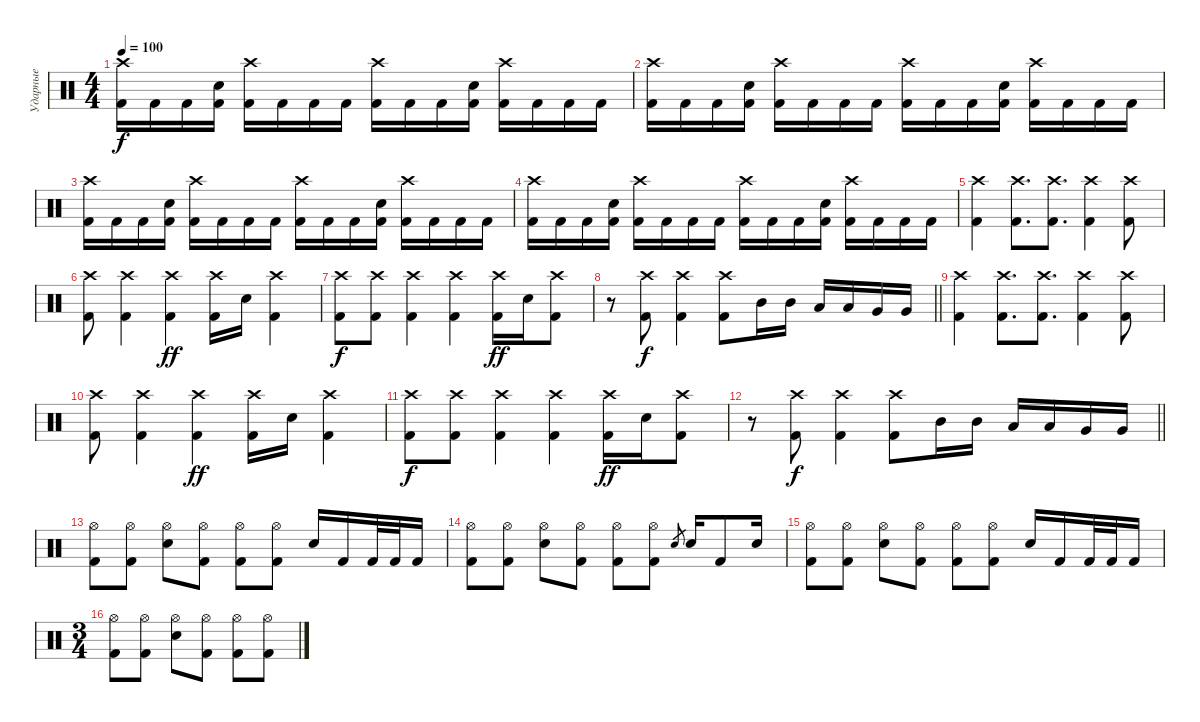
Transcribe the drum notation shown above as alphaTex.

\track ("Ударные" "Ударные") {instrument percussion}
\staff {score}
\articulation defaults
\ts (4 4)
\tempo 100
\clef neutral
\ks c
("Crash high (hit)" "Kick (hit) 2").16{dy f} "Kick (hit) 2".16 "Kick (hit) 2".16 ("Snare (hit) 2" "Kick (hit) 2").16 ("Crash high (hit)" "Kick (hit) 2").16 "Kick (hit) 2".16 "Kick (hit) 2".16 "Kick (hit) 2".16 ("Crash high (hit)" "Kick (hit) 2").16 "Kick (hit) 2".16 "Kick (hit) 2".16 ("Snare (hit) 2" "Kick (hit) 2").16 ("Crash high (hit)" "Kick (hit) 2").16 "Kick (hit) 2".16 "Kick (hit) 2".16 "Kick (hit) 2".16 |
("Crash high (hit)" "Kick (hit) 2").16 "Kick (hit) 2".16 "Kick (hit) 2".16 ("Snare (hit) 2" "Kick (hit) 2").16 ("Crash high (hit)" "Kick (hit) 2").16 "Kick (hit) 2".16 "Kick (hit) 2".16 "Kick (hit) 2".16 ("Crash high (hit)" "Kick (hit) 2").16 "Kick (hit) 2".16 "Kick (hit) 2".16 ("Snare (hit) 2" "Kick (hit) 2").16 ("Crash high (hit)" "Kick (hit) 2").16 "Kick (hit) 2".16 "Kick (hit) 2".16 "Kick (hit) 2".16 |
("Crash high (hit)" "Kick (hit) 2").16 "Kick (hit) 2".16 "Kick (hit) 2".16 ("Snare (hit) 2" "Kick (hit) 2").16 ("Crash high (hit)" "Kick (hit) 2").16 "Kick (hit) 2".16 "Kick (hit) 2".16 "Kick (hit) 2".16 ("Crash high (hit)" "Kick (hit) 2").16 "Kick (hit) 2".16 "Kick (hit) 2".16 ("Snare (hit) 2" "Kick (hit) 2").16 ("Crash high (hit)" "Kick (hit) 2").16 "Kick (hit) 2".16 "Kick (hit) 2".16 "Kick (hit) 2".16 |
("Crash high (hit)" "Kick (hit) 2").16 "Kick (hit) 2".16 "Kick (hit) 2".16 ("Snare (hit) 2" "Kick (hit) 2").16 ("Crash high (hit)" "Kick (hit) 2").16 "Kick (hit) 2".16 "Kick (hit) 2".16 "Kick (hit) 2".16 ("Crash high (hit)" "Kick (hit) 2").16 "Kick (hit) 2".16 "Kick (hit) 2".16 ("Snare (hit) 2" "Kick (hit) 2").16 ("Crash high (hit)" "Kick (hit) 2").16 "Kick (hit) 2".16 "Kick (hit) 2".16 "Kick (hit) 2".16 |
("Crash high (hit)" "Kick (hit) 2").4 ("Crash high (hit)" "Kick (hit) 2").8{d} ("Crash high (hit)" "Kick (hit) 2").8{d} ("Crash high (hit)" "Kick (hit) 2").4 ("Crash high (hit)" "Kick (hit) 2").8 |
("Crash high (hit)" "Kick (hit) 2").8 ("Crash high (hit)" "Kick (hit) 2").4 ("Crash high (hit)" "Kick (hit) 2").4{dy ff} ("Crash high (hit)" "Kick (hit) 2").16 "Snare (hit) 2".16 ("Crash high (hit)" "Kick (hit) 2").4 |
("Crash high (hit)" "Kick (hit) 2").8{dy f} ("Crash high (hit)" "Kick (hit) 2").8 ("Crash high (hit)" "Kick (hit) 2").4 ("Crash high (hit)" "Kick (hit) 2").4 ("Crash high (hit)" "Kick (hit) 2").16{dy ff} "Snare (hit) 2".16 ("Crash high (hit)" "Kick (hit) 2").8 |
\barLineRight lightlight
r.8 ("Crash high (hit)" "Kick (hit) 2").8{dy f} ("Crash high (hit)" "Kick (hit) 2").4 ("Crash high (hit)" "Kick (hit) 2").8 "Mid Tom (hit)".16 "Mid Tom (hit)".16 "Low Tom (hit)".16 "Low Tom (hit)".16 "Very Low Tom (hit)".16 "Very Low Tom (hit)".16 |
("Crash high (hit)" "Kick (hit) 2").4 ("Crash high (hit)" "Kick (hit) 2").8{d} ("Crash high (hit)" "Kick (hit) 2").8{d} ("Crash high (hit)" "Kick (hit) 2").4 ("Crash high (hit)" "Kick (hit) 2").8 |
("Crash high (hit)" "Kick (hit) 2").8 ("Crash high (hit)" "Kick (hit) 2").4 ("Crash high (hit)" "Kick (hit) 2").4{dy ff} ("Crash high (hit)" "Kick (hit) 2").16 "Snare (hit) 2".16 ("Crash high (hit)" "Kick (hit) 2").4 |
("Crash high (hit)" "Kick (hit) 2").8{dy f} ("Crash high (hit)" "Kick (hit) 2").8 ("Crash high (hit)" "Kick (hit) 2").4 ("Crash high (hit)" "Kick (hit) 2").4 ("Crash high (hit)" "Kick (hit) 2").16{dy ff} "Snare (hit) 2".16 ("Crash high (hit)" "Kick (hit) 2").8 |
\barLineRight lightlight
r.8 ("Crash high (hit)" "Kick (hit) 2").8{dy f} ("Crash high (hit)" "Kick (hit) 2").4 ("Crash high (hit)" "Kick (hit) 2").8 "Mid Tom (hit)".16 "Mid Tom (hit)".16 "Low Tom (hit)".16 "Low Tom (hit)".16 "Very Low Tom (hit)".16 "Very Low Tom (hit)".16 |
("Hi-Hat (open)" "Kick (hit) 2").8 ("Hi-Hat (open)" "Kick (hit) 2").8 ("Hi-Hat (open)" "Electric Snare (hit)").8 ("Hi-Hat (open)" "Kick (hit) 2").8 ("Hi-Hat (open)" "Kick (hit) 2").8 ("Hi-Hat (open)" "Kick (hit) 2").8 "Electric Snare (hit)".16 "Kick (hit) 2".16 "Kick (hit) 2".32 "Kick (hit) 2".32 "Kick (hit) 2".16 |
("Hi-Hat (open)" "Kick (hit) 2").8 ("Hi-Hat (open)" "Kick (hit) 2").8 ("Hi-Hat (open)" "Electric Snare (hit)").8 ("Hi-Hat (open)" "Kick (hit) 2").8 ("Hi-Hat (open)" "Kick (hit) 2").8 ("Hi-Hat (open)" "Kick (hit) 2").8 "Electric Snare (hit)".8{gr} "Electric Snare (hit)".16 "Kick (hit) 2".8 "Electric Snare (hit)".16 |
("Hi-Hat (open)" "Kick (hit) 2").8 ("Hi-Hat (open)" "Kick (hit) 2").8 ("Hi-Hat (open)" "Electric Snare (hit)").8 ("Hi-Hat (open)" "Kick (hit) 2").8 ("Hi-Hat (open)" "Kick (hit) 2").8 ("Hi-Hat (open)" "Kick (hit) 2").8 "Electric Snare (hit)".16 "Kick (hit) 2".16 "Kick (hit) 2".32 "Kick (hit) 2".32 "Kick (hit) 2".16 |
\ts (3 4)
("Hi-Hat (open)" "Kick (hit) 2").8 ("Hi-Hat (open)" "Kick (hit) 2").8 ("Hi-Hat (open)" "Electric Snare (hit)").8 ("Hi-Hat (open)" "Kick (hit) 2").8 ("Hi-Hat (open)" "Kick (hit) 2").8 ("Hi-Hat (open)" "Kick (hit) 2").8
